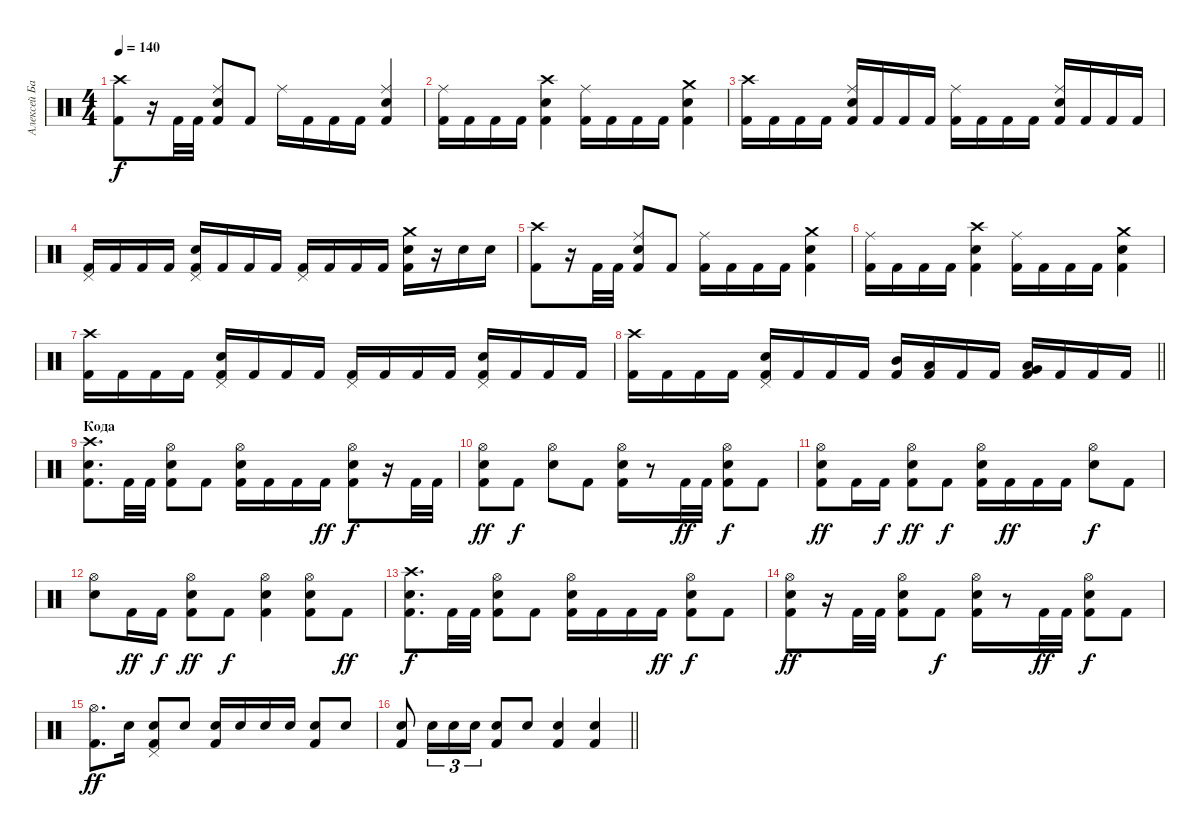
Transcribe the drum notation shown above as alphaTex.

\track ("Алексей Барзилович" "Алексей Ба") {instrument percussion}
\staff {score}
\articulation defaults
\ts (4 4)
\tempo 140
\clef neutral
\ks c
("Crash high (hit)" "Kick (hit) 2").8{dy f} r.16 "Kick (hit) 2".32 "Kick (hit) 2".32 ("Ride (middle)" "Electric Snare (hit)" "Kick (hit) 2").8 "Kick (hit) 2".8 "Ride (middle)".16 "Kick (hit) 2".16 "Kick (hit) 2".16 "Kick (hit) 2".16 ("Ride (middle)" "Electric Snare (hit)" "Kick (hit) 2").4 |
("Ride (middle)" "Kick (hit) 2").16 "Kick (hit) 2".16 "Kick (hit) 2".16 "Kick (hit) 2".16 ("Crash high (hit)" "Electric Snare (hit)" "Kick (hit) 2").4 ("Ride (middle)" "Kick (hit) 2").16 "Kick (hit) 2".16 "Kick (hit) 2".16 "Kick (hit) 2".16 ("Crash medium (hit)" "Electric Snare (hit)" "Kick (hit) 2").4 |
("Crash high (hit)" "Kick (hit) 2").16 "Kick (hit) 2".16 "Kick (hit) 2".16 "Kick (hit) 2".16 ("Ride (middle)" "Electric Snare (hit)" "Kick (hit) 2").16 "Kick (hit) 2".16 "Kick (hit) 2".16 "Kick (hit) 2".16 ("Ride (middle)" "Kick (hit) 2").16 "Kick (hit) 2".16 "Kick (hit) 2".16 "Kick (hit) 2".16 ("Ride (middle)" "Electric Snare (hit)" "Kick (hit) 2").16 "Kick (hit) 2".16 "Kick (hit) 2".16 "Kick (hit) 2".16 |
("Pedal Hi-Hat (hit)" "Kick (hit) 2").16 "Kick (hit) 2".16 "Kick (hit) 2".16 "Kick (hit) 2".16 ("Pedal Hi-Hat (hit)" "Electric Snare (hit)" "Kick (hit) 2").16 "Kick (hit) 2".16 "Kick (hit) 2".16 "Kick (hit) 2".16 ("Pedal Hi-Hat (hit)" "Kick (hit) 2").16 "Kick (hit) 2".16 "Kick (hit) 2".16 "Kick (hit) 2".16 ("Crash medium (hit)" "Electric Snare (hit)" "Kick (hit) 2").16 r.16 "Electric Snare (hit)".16 "Electric Snare (hit)".16 |
("Crash high (hit)" "Kick (hit) 2").8 r.16 "Kick (hit) 2".32 "Kick (hit) 2".32 ("Ride (middle)" "Electric Snare (hit)" "Kick (hit) 2").8 "Kick (hit) 2".8 ("Ride (middle)" "Kick (hit) 2").16 "Kick (hit) 2".16 "Kick (hit) 2".16 "Kick (hit) 2".16 ("Crash medium (hit)" "Electric Snare (hit)" "Kick (hit) 2").4 |
("Ride (middle)" "Kick (hit) 2").16 "Kick (hit) 2".16 "Kick (hit) 2".16 "Kick (hit) 2".16 ("Crash high (hit)" "Electric Snare (hit)" "Kick (hit) 2").4 ("Ride (middle)" "Kick (hit) 2").16 "Kick (hit) 2".16 "Kick (hit) 2".16 "Kick (hit) 2".16 ("Crash medium (hit)" "Electric Snare (hit)" "Kick (hit) 2").4 |
("Crash high (hit)" "Kick (hit) 2").16 "Kick (hit) 2".16 "Kick (hit) 2".16 "Kick (hit) 2".16 ("Pedal Hi-Hat (hit)" "Electric Snare (hit)" "Kick (hit) 2").16 "Kick (hit) 2".16 "Kick (hit) 2".16 "Kick (hit) 2".16 ("Pedal Hi-Hat (hit)" "Kick (hit) 2").16 "Kick (hit) 2".16 "Kick (hit) 2".16 "Kick (hit) 2".16 ("Pedal Hi-Hat (hit)" "Electric Snare (hit)" "Kick (hit) 2").16 "Kick (hit) 2".16 "Kick (hit) 2".16 "Kick (hit) 2".16 |
\barLineRight lightlight
("Crash high (hit)" "Kick (hit) 2").16 "Kick (hit) 2".16 "Kick (hit) 2".16 "Kick (hit) 2".16 ("Pedal Hi-Hat (hit)" "Electric Snare (hit)" "Kick (hit) 2").16 "Kick (hit) 2".16 "Kick (hit) 2".16 "Kick (hit) 2".16 ("Mid Tom (hit)" "Kick (hit) 2").16 ("Low Tom (hit)" "Kick (hit) 2").16 "Kick (hit) 2".16 "Kick (hit) 2".16 ("Very Low Tom (hit)" "Low Floor Tom (hit)" "Kick (hit) 2").16 "Kick (hit) 2".16 "Kick (hit) 2".16 "Kick (hit) 2".16 |
\section ("" "Кода")
("Crash high (hit)" "Electric Snare (hit)" "Kick (hit) 2").8{d} "Kick (hit) 2".32 "Kick (hit) 2".32 ("Hi-Hat (open)" "Electric Snare (hit)" "Kick (hit) 2").8 "Kick (hit) 2".8 ("Hi-Hat (open)" "Electric Snare (hit)" "Kick (hit) 2").16 "Kick (hit) 2".16 "Kick (hit) 2".16 "Kick (hit) 2".16{dy ff} ("Hi-Hat (open)" "Electric Snare (hit)" "Kick (hit) 2").8{dy f} r.16 "Kick (hit) 2".32 "Kick (hit) 2".32 |
("Hi-Hat (open)" "Electric Snare (hit)" "Kick (hit) 2").8{dy ff} "Kick (hit) 2".8{dy f} ("Hi-Hat (open)" "Electric Snare (hit)").8 "Kick (hit) 2".8 ("Hi-Hat (open)" "Electric Snare (hit)" "Kick (hit) 2").16 r.8 "Kick (hit) 2".32{dy ff} "Kick (hit) 2".32 ("Hi-Hat (open)" "Electric Snare (hit)" "Kick (hit) 2").8{dy f} "Kick (hit) 2".8 |
("Hi-Hat (open)" "Electric Snare (hit)" "Kick (hit) 2").8{dy ff} "Kick (hit) 2".16 "Kick (hit) 2".16{dy f} ("Hi-Hat (open)" "Electric Snare (hit)" "Kick (hit) 2").8{dy ff} "Kick (hit) 2".8{dy f} ("Hi-Hat (open)" "Electric Snare (hit)" "Kick (hit) 2").16 "Kick (hit) 2".16{dy ff} "Kick (hit) 2".16 "Kick (hit) 2".16 ("Hi-Hat (open)" "Electric Snare (hit)").8{dy f} "Kick (hit) 2".8 |
("Hi-Hat (open)" "Electric Snare (hit)").8 "Kick (hit) 2".16{dy ff} "Kick (hit) 2".16{dy f} ("Hi-Hat (open)" "Electric Snare (hit)" "Kick (hit) 2").8{dy ff} "Kick (hit) 2".8{dy f} ("Hi-Hat (open)" "Electric Snare (hit)" "Kick (hit) 2").4 ("Hi-Hat (open)" "Electric Snare (hit)" "Kick (hit) 2").8 "Kick (hit) 2".8{dy ff} |
("Crash high (hit)" "Electric Snare (hit)" "Kick (hit) 2").8{d dy f} "Kick (hit) 2".32 "Kick (hit) 2".32 ("Hi-Hat (open)" "Electric Snare (hit)" "Kick (hit) 2").8 "Kick (hit) 2".8 ("Hi-Hat (open)" "Electric Snare (hit)" "Kick (hit) 2").16 "Kick (hit) 2".16 "Kick (hit) 2".16 "Kick (hit) 2".16{dy ff} ("Hi-Hat (open)" "Electric Snare (hit)" "Kick (hit) 2").8{dy f} "Kick (hit) 2".8 |
("Hi-Hat (open)" "Electric Snare (hit)" "Kick (hit) 2").8{dy ff} r.16 "Kick (hit) 2".32 "Kick (hit) 2".32 ("Hi-Hat (open)" "Electric Snare (hit)" "Kick (hit) 2").8 "Kick (hit) 2".8{dy f} ("Hi-Hat (open)" "Electric Snare (hit)" "Kick (hit) 2").16 r.8 "Kick (hit) 2".32{dy ff} "Kick (hit) 2".32 ("Hi-Hat (open)" "Electric Snare (hit)" "Kick (hit) 2").8{dy f} "Kick (hit) 2".8 |
("Hi-Hat (open)" "Kick (hit) 2").8{d dy ff} "Electric Snare (hit)".16 ("Pedal Hi-Hat (hit)" "Electric Snare (hit)" "Kick (hit) 2").8 "Electric Snare (hit)".8 ("Electric Snare (hit)" "Kick (hit) 2").16 "Electric Snare (hit)".16 "Electric Snare (hit)".16 "Electric Snare (hit)".16 ("Electric Snare (hit)" "Kick (hit) 2").8 "Electric Snare (hit)".8 |
\barLineRight lightlight
("Electric Snare (hit)" "Kick (hit) 2").8 "Electric Snare (hit)".16{tu (3 2)} "Electric Snare (hit)".16{tu (3 2)} "Electric Snare (hit)".16{tu (3 2)} ("Electric Snare (hit)" "Kick (hit) 2").8 "Electric Snare (hit)".8 ("Electric Snare (hit)" "Kick (hit) 2").4 ("Electric Snare (hit)" "Kick (hit) 2").4
